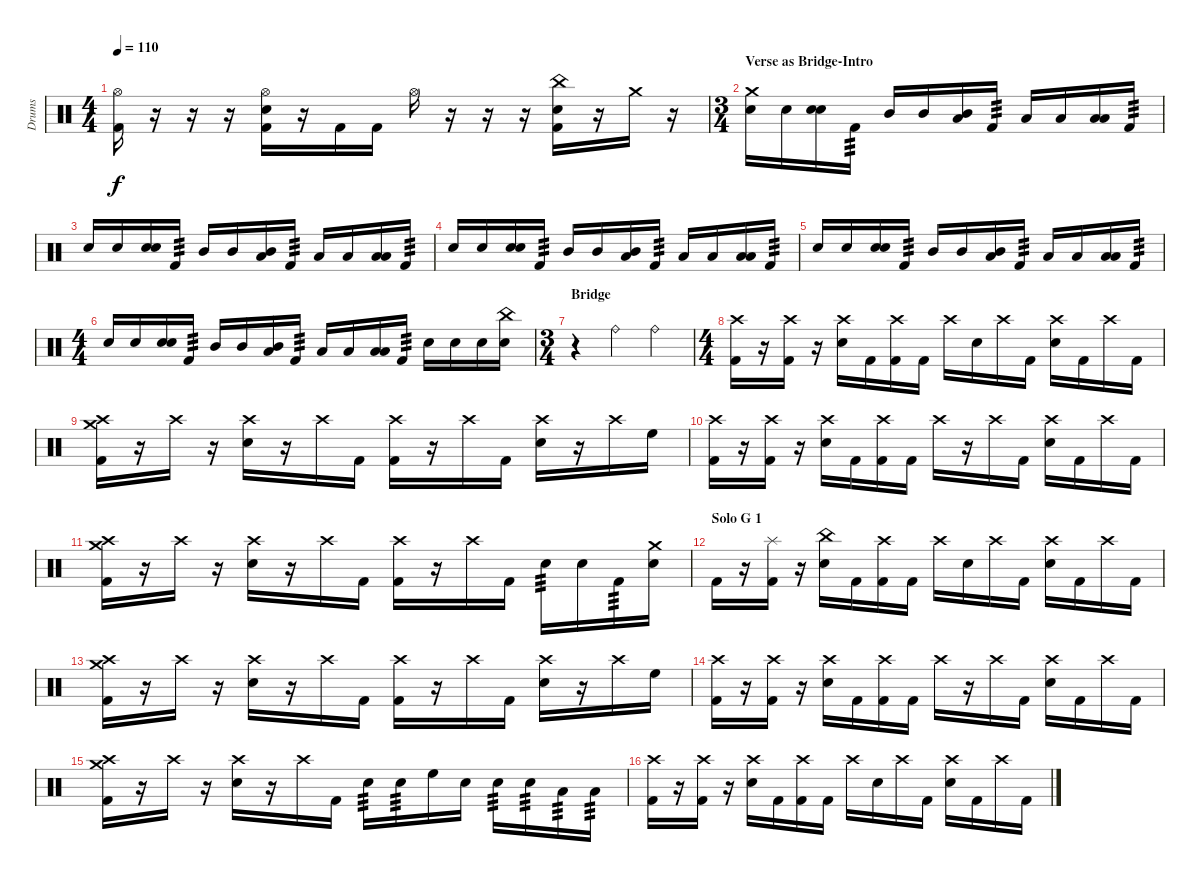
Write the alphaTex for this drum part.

\track ("Drums" "Drums") {instrument percussion}
\staff {score}
\articulation defaults
\ts (4 4)
\tempo 110
\clef neutral
\ks c
("Hi-Hat (open)" "Kick (hit) 2").16{dy f} r.16 r.16 r.16 ("Hi-Hat (open)" "Snare (hit) 2" "Kick (hit) 2").16 r.16 "Kick (hit) 2".16 "Kick (hit) 2".16 "Hi-Hat (open)".16 r.16 r.16 r.16 ("China (hit)" "Snare (hit) 2" "Kick (hit) 2").16 r.16 "Crash medium (hit)".16 r.16 |
\ts (3 4)
\section ("" "Verse as Bridge-Intro")
("Crash medium (hit)" "Snare (hit) 2").16 "Snare (hit) 2".16 ("Snare (hit) 2" "Snare (hit) 2").16 "Kick (hit) 2".16{tp 3} "Mid Tom (hit)".16 "Mid Tom (hit)".16 ("Mid Tom (hit)" "Low Tom (hit)").16 "Kick (hit) 2".16{tp 3} "Low Tom (hit)".16 "Low Tom (hit)".16 ("Low Tom (hit)" "Low Floor Tom (hit)").16 "Kick (hit) 2".16{tp 3} |
"Snare (hit) 2".16 "Snare (hit) 2".16 ("Snare (hit) 2" "Snare (hit) 2").16 "Kick (hit) 2".16{tp 3} "Mid Tom (hit)".16 "Mid Tom (hit)".16 ("Mid Tom (hit)" "Low Tom (hit)").16 "Kick (hit) 2".16{tp 3} "Low Tom (hit)".16 "Low Tom (hit)".16 ("Low Tom (hit)" "Low Floor Tom (hit)").16 "Kick (hit) 2".16{tp 3} |
"Snare (hit) 2".16 "Snare (hit) 2".16 ("Snare (hit) 2" "Snare (hit) 2").16 "Kick (hit) 2".16{tp 3} "Mid Tom (hit)".16 "Mid Tom (hit)".16 ("Mid Tom (hit)" "Low Tom (hit)").16 "Kick (hit) 2".16{tp 3} "Low Tom (hit)".16 "Low Tom (hit)".16 ("Low Tom (hit)" "Low Floor Tom (hit)").16 "Kick (hit) 2".16{tp 3} |
"Snare (hit) 2".16 "Snare (hit) 2".16 ("Snare (hit) 2" "Snare (hit) 2").16 "Kick (hit) 2".16{tp 3} "Mid Tom (hit)".16 "Mid Tom (hit)".16 ("Mid Tom (hit)" "Low Tom (hit)").16 "Kick (hit) 2".16{tp 3} "Low Tom (hit)".16 "Low Tom (hit)".16 ("Low Tom (hit)" "Low Floor Tom (hit)").16 "Kick (hit) 2".16{tp 3} |
\ts (4 4)
"Snare (hit) 2".16 "Snare (hit) 2".16 ("Snare (hit) 2" "Snare (hit) 2").16 "Kick (hit) 2".16{tp 3} "Mid Tom (hit)".16 "Mid Tom (hit)".16 ("Mid Tom (hit)" "Low Tom (hit)").16 "Kick (hit) 2".16{tp 3} "Low Tom (hit)".16 "Low Tom (hit)".16 ("Low Tom (hit)" "Low Floor Tom (hit)").16 "Kick (hit) 2".16{tp 3} "Snare (hit) 2".16 "Snare (hit) 2".16 "Snare (hit) 2".16 ("China (hit)" "Snare (hit) 2").16 |
\ts (3 4)
\section ("" "Bridge")
r.4 "Ride (bell)".4 "Ride (bell)".4 |
\ts (4 4)
("Crash high (hit)" "Kick (hit) 2").16 r.16 ("Crash high (hit)" "Kick (hit) 2").16 r.16 ("Crash high (hit)" "Snare (hit) 2").16 "Kick (hit) 2".16 ("Crash high (hit)" "Kick (hit) 2").16 "Kick (hit) 2".16 "Crash high (hit)".16 "Snare (hit) 2".16 "Crash high (hit)".16 "Kick (hit) 2".16 ("Crash high (hit)" "Snare (hit) 2").16 "Kick (hit) 2".16 "Crash high (hit)".16 "Kick (hit) 2".16 |
("Crash high (hit)" "Crash medium (hit)" "Kick (hit) 2").16 r.16 "Crash high (hit)".16 r.16 ("Crash high (hit)" "Snare (hit) 2").16 r.16 "Crash high (hit)".16 "Kick (hit) 2".16 ("Crash high (hit)" "Kick (hit) 2").16 r.16 "Crash high (hit)".16 "Kick (hit) 2".16 ("Crash high (hit)" "Snare (hit) 2").16 r.16 "Crash high (hit)".16 "High Floor Tom (hit)".16 |
("Crash high (hit)" "Kick (hit) 2").16 r.16 ("Crash high (hit)" "Kick (hit) 2").16 r.16 ("Crash high (hit)" "Snare (hit) 2").16 "Kick (hit) 2".16 ("Crash high (hit)" "Kick (hit) 2").16 "Kick (hit) 2".16 "Crash high (hit)".16 r.16 "Crash high (hit)".16 "Kick (hit) 2".16 ("Crash high (hit)" "Snare (hit) 2").16 "Kick (hit) 2".16 "Crash high (hit)".16 "Kick (hit) 2".16 |
("Crash high (hit)" "Crash medium (hit)" "Kick (hit) 2").16 r.16 "Crash high (hit)".16 r.16 ("Crash high (hit)" "Snare (hit) 2").16 r.16 "Crash high (hit)".16 "Kick (hit) 2".16 ("Crash high (hit)" "Kick (hit) 2").16 r.16 "Crash high (hit)".16 "Kick (hit) 2".16 "Snare (hit) 2".16{tp 3} "Snare (hit) 2".16 "Kick (hit) 2".16{tp 3} ("Crash medium (hit)" "Snare (hit) 2").16 |
\section ("" "Solo G 1")
"Kick (hit) 2".16 r.16 ("Splash (hit)" "Kick (hit) 2").16 r.16 ("China (hit)" "Snare (hit) 2").16 "Kick (hit) 2".16 ("Crash high (hit)" "Kick (hit) 2").16 "Kick (hit) 2".16 "Crash high (hit)".16 "Snare (hit) 2".16 "Crash high (hit)".16 "Kick (hit) 2".16 ("Crash high (hit)" "Snare (hit) 2").16 "Kick (hit) 2".16 "Crash high (hit)".16 "Kick (hit) 2".16 |
("Crash high (hit)" "Crash medium (hit)" "Kick (hit) 2").16 r.16 "Crash high (hit)".16 r.16 ("Crash high (hit)" "Snare (hit) 2").16 r.16 "Crash high (hit)".16 "Kick (hit) 2".16 ("Crash high (hit)" "Kick (hit) 2").16 r.16 "Crash high (hit)".16 "Kick (hit) 2".16 ("Crash high (hit)" "Snare (hit) 2").16 r.16 "Crash high (hit)".16 "High Floor Tom (hit)".16 |
("Crash high (hit)" "Kick (hit) 2").16 r.16 ("Crash high (hit)" "Kick (hit) 2").16 r.16 ("Crash high (hit)" "Snare (hit) 2").16 "Kick (hit) 2".16 ("Crash high (hit)" "Kick (hit) 2").16 "Kick (hit) 2".16 "Crash high (hit)".16 r.16 "Crash high (hit)".16 "Kick (hit) 2".16 ("Crash high (hit)" "Snare (hit) 2").16 "Kick (hit) 2".16 "Crash high (hit)".16 "Kick (hit) 2".16 |
("Crash high (hit)" "Crash medium (hit)" "Kick (hit) 2").16 r.16 "Crash high (hit)".16 r.16 ("Crash high (hit)" "Snare (hit) 2").16 r.16 "Crash high (hit)".16 "Kick (hit) 2".16 "Snare (hit) 2".16{tp 3} "Snare (hit) 2".16{tp 3} "High Floor Tom (hit)".16 "Snare (hit) 2".16 "Snare (hit) 2".16{tp 3} "Snare (hit) 2".16{tp 3} "Low Tom (hit)".16{tp 3} "Low Floor Tom (hit)".16{tp 3} |
("Crash high (hit)" "Kick (hit) 2").16 r.16 ("Crash high (hit)" "Kick (hit) 2").16 r.16 ("Crash high (hit)" "Snare (hit) 2").16 "Kick (hit) 2".16 ("Crash high (hit)" "Kick (hit) 2").16 "Kick (hit) 2".16 "Crash high (hit)".16 "Snare (hit) 2".16 "Crash high (hit)".16 "Kick (hit) 2".16 ("Crash high (hit)" "Snare (hit) 2").16 "Kick (hit) 2".16 "Crash high (hit)".16 "Kick (hit) 2".16
